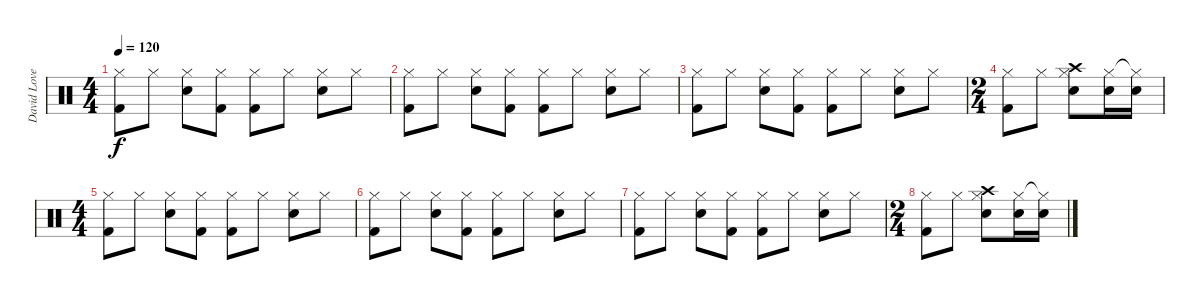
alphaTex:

\track ("David Lovering" "David Love") {instrument percussion}
\staff {score}
\articulation defaults
\ts (4 4)
\tempo 120
\clef neutral
\ks c
("Hi-Hat (closed)" "Kick (hit) 2").8{dy f} "Hi-Hat (closed)".8 ("Hi-Hat (closed)" "Snare (hit) 2").8 ("Hi-Hat (closed)" "Kick (hit) 2").8 ("Hi-Hat (closed)" "Kick (hit) 2").8 "Hi-Hat (closed)".8 ("Hi-Hat (closed)" "Snare (hit) 2").8 "Hi-Hat (closed)".8 |
("Hi-Hat (closed)" "Kick (hit) 2").8 "Hi-Hat (closed)".8 ("Hi-Hat (closed)" "Snare (hit) 2").8 ("Hi-Hat (closed)" "Kick (hit) 2").8 ("Hi-Hat (closed)" "Kick (hit) 2").8 "Hi-Hat (closed)".8 ("Hi-Hat (closed)" "Snare (hit) 2").8 "Hi-Hat (closed)".8 |
("Hi-Hat (closed)" "Kick (hit) 2").8 "Hi-Hat (closed)".8 ("Hi-Hat (closed)" "Snare (hit) 2").8 ("Hi-Hat (closed)" "Kick (hit) 2").8 ("Hi-Hat (closed)" "Kick (hit) 2").8 "Hi-Hat (closed)".8 ("Hi-Hat (closed)" "Snare (hit) 2").8 "Hi-Hat (closed)".8 |
\ts (2 4)
("Hi-Hat (closed)" "Kick (hit) 2").8 "Hi-Hat (closed)".8 ("Hi-Hat (closed)" "Crash high (hit)" "Snare (hit) 2").8 ("Hi-Hat (closed)" "Snare (hit) 2").16 ("Hi-Hat (closed)"{t} "Snare (hit) 2").16 |
\ts (4 4)
("Hi-Hat (closed)" "Kick (hit) 2").8 "Hi-Hat (closed)".8 ("Hi-Hat (closed)" "Snare (hit) 2").8 ("Hi-Hat (closed)" "Kick (hit) 2").8 ("Hi-Hat (closed)" "Kick (hit) 2").8 "Hi-Hat (closed)".8 ("Hi-Hat (closed)" "Snare (hit) 2").8 "Hi-Hat (closed)".8 |
("Hi-Hat (closed)" "Kick (hit) 2").8 "Hi-Hat (closed)".8 ("Hi-Hat (closed)" "Snare (hit) 2").8 ("Hi-Hat (closed)" "Kick (hit) 2").8 ("Hi-Hat (closed)" "Kick (hit) 2").8 "Hi-Hat (closed)".8 ("Hi-Hat (closed)" "Snare (hit) 2").8 "Hi-Hat (closed)".8 |
("Hi-Hat (closed)" "Kick (hit) 2").8 "Hi-Hat (closed)".8 ("Hi-Hat (closed)" "Snare (hit) 2").8 ("Hi-Hat (closed)" "Kick (hit) 2").8 ("Hi-Hat (closed)" "Kick (hit) 2").8 "Hi-Hat (closed)".8 ("Hi-Hat (closed)" "Snare (hit) 2").8 "Hi-Hat (closed)".8 |
\ts (2 4)
("Hi-Hat (closed)" "Kick (hit) 2").8 "Hi-Hat (closed)".8 ("Hi-Hat (closed)" "Crash high (hit)" "Snare (hit) 2").8 ("Hi-Hat (closed)" "Snare (hit) 2").16 ("Hi-Hat (closed)"{t} "Snare (hit) 2").16
